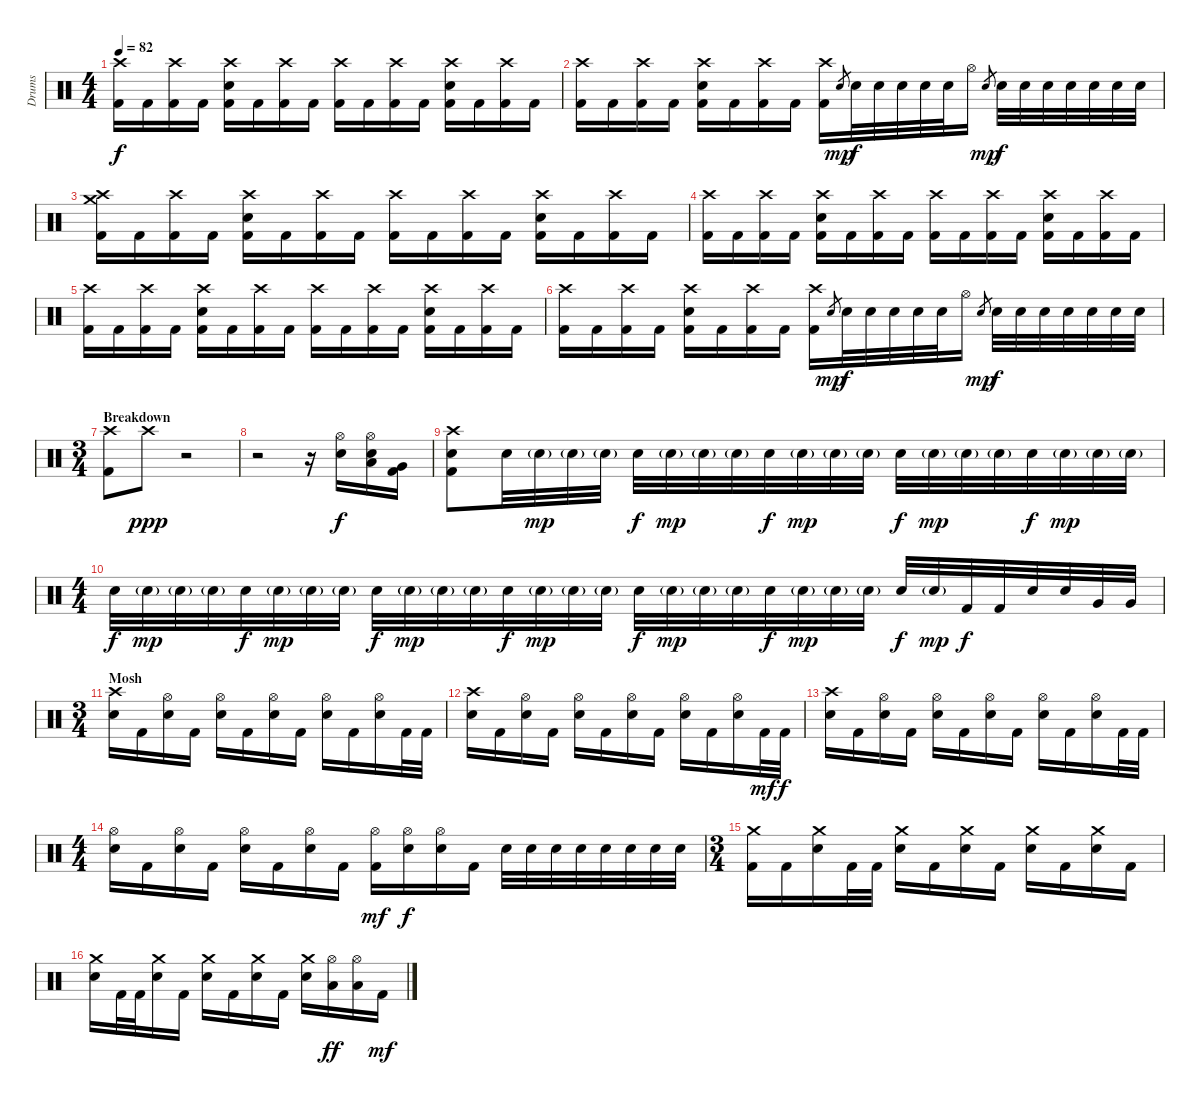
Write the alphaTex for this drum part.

\track ("Drums" "Drums") {instrument percussion}
\staff {score}
\articulation defaults
\ts (4 4)
\tempo 82
\clef neutral
\ks c
("Crash high (hit)" "Kick (hit) 2").16{dy f} "Kick (hit) 2".16 ("Crash high (hit)" "Kick (hit) 2").16 "Kick (hit) 2".16 ("Crash high (hit)" "Electric Snare (hit)" "Kick (hit) 2").16 "Kick (hit) 2".16 ("Crash high (hit)" "Kick (hit) 2").16 "Kick (hit) 2".16 ("Crash high (hit)" "Kick (hit) 2").16 "Kick (hit) 2".16 ("Crash high (hit)" "Kick (hit) 2").16 "Kick (hit) 2".16 ("Crash high (hit)" "Electric Snare (hit)" "Kick (hit) 2").16 "Kick (hit) 2".16 ("Crash high (hit)" "Kick (hit) 2").16 "Kick (hit) 2".16 |
("Crash high (hit)" "Kick (hit) 2").16 "Kick (hit) 2".16 ("Crash high (hit)" "Kick (hit) 2").16 "Kick (hit) 2".16 ("Crash high (hit)" "Electric Snare (hit)" "Kick (hit) 2").16 "Kick (hit) 2".16 ("Crash high (hit)" "Kick (hit) 2").16 "Kick (hit) 2".16 ("Crash high (hit)" "Kick (hit) 2").16 "Electric Snare (hit)".8{gr dy mp} "Electric Snare (hit)".32{dy f} "Electric Snare (hit)".32 "Electric Snare (hit)".32 "Electric Snare (hit)".32 "Electric Snare (hit)".32 "Hi-Hat (open)".16 "Electric Snare (hit)".8{gr dy mp} "Electric Snare (hit)".32{dy f} "Electric Snare (hit)".32 "Electric Snare (hit)".32 "Electric Snare (hit)".32 "Electric Snare (hit)".32 "Electric Snare (hit)".32 "Electric Snare (hit)".32 |
\section ("" "")
("Crash high (hit)" "Crash medium (hit)" "Kick (hit) 2").16 "Kick (hit) 2".16 ("Crash high (hit)" "Kick (hit) 2").16 "Kick (hit) 2".16 ("Crash high (hit)" "Electric Snare (hit)" "Kick (hit) 2").16 "Kick (hit) 2".16 ("Crash high (hit)" "Kick (hit) 2").16 "Kick (hit) 2".16 ("Crash high (hit)" "Kick (hit) 2").16 "Kick (hit) 2".16 ("Crash high (hit)" "Kick (hit) 2").16 "Kick (hit) 2".16 ("Crash high (hit)" "Electric Snare (hit)" "Kick (hit) 2").16 "Kick (hit) 2".16 ("Crash high (hit)" "Kick (hit) 2").16 "Kick (hit) 2".16 |
("Crash high (hit)" "Kick (hit) 2").16 "Kick (hit) 2".16 ("Crash high (hit)" "Kick (hit) 2").16 "Kick (hit) 2".16 ("Crash high (hit)" "Electric Snare (hit)" "Kick (hit) 2").16 "Kick (hit) 2".16 ("Crash high (hit)" "Kick (hit) 2").16 "Kick (hit) 2".16 ("Crash high (hit)" "Kick (hit) 2").16 "Kick (hit) 2".16 ("Crash high (hit)" "Kick (hit) 2").16 "Kick (hit) 2".16 ("Crash high (hit)" "Electric Snare (hit)" "Kick (hit) 2").16 "Kick (hit) 2".16 ("Crash high (hit)" "Kick (hit) 2").16 "Kick (hit) 2".16 |
("Crash high (hit)" "Kick (hit) 2").16 "Kick (hit) 2".16 ("Crash high (hit)" "Kick (hit) 2").16 "Kick (hit) 2".16 ("Crash high (hit)" "Electric Snare (hit)" "Kick (hit) 2").16 "Kick (hit) 2".16 ("Crash high (hit)" "Kick (hit) 2").16 "Kick (hit) 2".16 ("Crash high (hit)" "Kick (hit) 2").16 "Kick (hit) 2".16 ("Crash high (hit)" "Kick (hit) 2").16 "Kick (hit) 2".16 ("Crash high (hit)" "Electric Snare (hit)" "Kick (hit) 2").16 "Kick (hit) 2".16 ("Crash high (hit)" "Kick (hit) 2").16 "Kick (hit) 2".16 |
("Crash high (hit)" "Kick (hit) 2").16 "Kick (hit) 2".16 ("Crash high (hit)" "Kick (hit) 2").16 "Kick (hit) 2".16 ("Crash high (hit)" "Electric Snare (hit)" "Kick (hit) 2").16 "Kick (hit) 2".16 ("Crash high (hit)" "Kick (hit) 2").16 "Kick (hit) 2".16 ("Crash high (hit)" "Kick (hit) 2").16 "Electric Snare (hit)".8{gr dy mp} "Electric Snare (hit)".32{dy f} "Electric Snare (hit)".32 "Electric Snare (hit)".32 "Electric Snare (hit)".32 "Electric Snare (hit)".32 "Hi-Hat (open)".16 "Electric Snare (hit)".8{gr dy mp} "Electric Snare (hit)".32{dy f} "Electric Snare (hit)".32 "Electric Snare (hit)".32 "Electric Snare (hit)".32 "Electric Snare (hit)".32 "Electric Snare (hit)".32 "Electric Snare (hit)".32 |
\ts (3 4)
\section ("" "Breakdown")
("Crash high (hit)" "Kick (hit) 2").8 "Crash high (hit)".8{dy ppp} r.2 |
r.2 r.16 ("Hi-Hat (open)" "Electric Snare (hit)").16{dy f} ("Hi-Hat (open)" "Low Tom (hit)" "Electric Snare (hit)").16 ("Very Low Tom (hit)" "Kick (hit) 2").16 |
("Crash high (hit)" "Electric Snare (hit)" "Kick (hit) 2").8 "Electric Snare (hit)".32 "Electric Snare (hit)"{g}.32{dy mp} "Electric Snare (hit)"{g}.32 "Electric Snare (hit)"{g}.32 "Electric Snare (hit)".32{dy f} "Electric Snare (hit)"{g}.32{dy mp} "Electric Snare (hit)"{g}.32 "Electric Snare (hit)"{g}.32 "Electric Snare (hit)".32{dy f} "Electric Snare (hit)"{g}.32{dy mp} "Electric Snare (hit)"{g}.32 "Electric Snare (hit)"{g}.32 "Electric Snare (hit)".32{dy f} "Electric Snare (hit)"{g}.32{dy mp} "Electric Snare (hit)"{g}.32 "Electric Snare (hit)"{g}.32 "Electric Snare (hit)".32{dy f} "Electric Snare (hit)"{g}.32{dy mp} "Electric Snare (hit)"{g}.32 "Electric Snare (hit)"{g}.32 |
\ts (4 4)
"Electric Snare (hit)".32{dy f} "Electric Snare (hit)"{g}.32{dy mp} "Electric Snare (hit)"{g}.32 "Electric Snare (hit)"{g}.32 "Electric Snare (hit)".32{dy f} "Electric Snare (hit)"{g}.32{dy mp} "Electric Snare (hit)"{g}.32 "Electric Snare (hit)"{g}.32 "Electric Snare (hit)".32{dy f} "Electric Snare (hit)"{g}.32{dy mp} "Electric Snare (hit)"{g}.32 "Electric Snare (hit)"{g}.32 "Electric Snare (hit)".32{dy f} "Electric Snare (hit)"{g}.32{dy mp} "Electric Snare (hit)"{g}.32 "Electric Snare (hit)"{g}.32 "Electric Snare (hit)".32{dy f} "Electric Snare (hit)"{g}.32{dy mp} "Electric Snare (hit)"{g}.32 "Electric Snare (hit)"{g}.32 "Electric Snare (hit)".32{dy f} "Electric Snare (hit)"{g}.32{dy mp} "Electric Snare (hit)"{g}.32 "Electric Snare (hit)"{g}.32 "Electric Snare (hit)".32{dy f} "Electric Snare (hit)"{g}.32{dy mp} "Kick (hit) 2".32{dy f} "Kick (hit) 2".32 "Electric Snare (hit)".32 "Electric Snare (hit)".32 "Very Low Tom (hit)".32 "Very Low Tom (hit)".32 |
\ts (3 4)
\section ("" "Mosh")
("Crash high (hit)" "Electric Snare (hit)").16 "Kick (hit) 2".16 ("Hi-Hat (open)" "Electric Snare (hit)").16 "Kick (hit) 2".16 ("Hi-Hat (open)" "Electric Snare (hit)").16 "Kick (hit) 2".16 ("Hi-Hat (open)" "Electric Snare (hit)").16 "Kick (hit) 2".16 ("Hi-Hat (open)" "Electric Snare (hit)").16 "Kick (hit) 2".16 ("Hi-Hat (open)" "Electric Snare (hit)").16 "Kick (hit) 2".32 "Kick (hit) 2".32 |
("Crash high (hit)" "Electric Snare (hit)").16 "Kick (hit) 2".16 ("Hi-Hat (open)" "Electric Snare (hit)").16 "Kick (hit) 2".16 ("Hi-Hat (open)" "Electric Snare (hit)").16 "Kick (hit) 2".16 ("Hi-Hat (open)" "Electric Snare (hit)").16 "Kick (hit) 2".16 ("Hi-Hat (open)" "Electric Snare (hit)").16 "Kick (hit) 2".16 ("Hi-Hat (open)" "Electric Snare (hit)").16 "Kick (hit) 2".32{dy mf} "Kick (hit) 2".32{dy f} |
("Crash high (hit)" "Electric Snare (hit)").16 "Kick (hit) 2".16 ("Hi-Hat (open)" "Electric Snare (hit)").16 "Kick (hit) 2".16 ("Hi-Hat (open)" "Electric Snare (hit)").16 "Kick (hit) 2".16 ("Hi-Hat (open)" "Electric Snare (hit)").16 "Kick (hit) 2".16 ("Hi-Hat (open)" "Electric Snare (hit)").16 "Kick (hit) 2".16 ("Hi-Hat (open)" "Electric Snare (hit)").16 "Kick (hit) 2".32 "Kick (hit) 2".32 |
\ts (4 4)
("Hi-Hat (open)" "Electric Snare (hit)").16 "Kick (hit) 2".16 ("Hi-Hat (open)" "Electric Snare (hit)").16 "Kick (hit) 2".16 ("Hi-Hat (open)" "Electric Snare (hit)").16 "Kick (hit) 2".16 ("Hi-Hat (open)" "Electric Snare (hit)").16 "Kick (hit) 2".16 ("Hi-Hat (open)" "Kick (hit) 2").16{dy mf} ("Hi-Hat (open)" "Electric Snare (hit)").16{dy f} ("Hi-Hat (open)" "Electric Snare (hit)").16 "Kick (hit) 2".16 "Electric Snare (hit)".32 "Electric Snare (hit)".32 "Electric Snare (hit)".32 "Electric Snare (hit)".32 "Electric Snare (hit)".32 "Electric Snare (hit)".32 "Electric Snare (hit)".32 "Electric Snare (hit)".32 |
\ts (3 4)
("Crash medium (hit)" "Kick (hit) 2").16 "Kick (hit) 2".16 ("Crash medium (hit)" "Electric Snare (hit)").16 "Kick (hit) 2".32 "Kick (hit) 2".32 ("Crash medium (hit)" "Electric Snare (hit)").16 "Kick (hit) 2".16 ("Crash medium (hit)" "Electric Snare (hit)").16 "Kick (hit) 2".16 ("Crash medium (hit)" "Electric Snare (hit)").16 "Kick (hit) 2".16 ("Crash medium (hit)" "Electric Snare (hit)").16 "Kick (hit) 2".16 |
("Crash medium (hit)" "Electric Snare (hit)").16 "Kick (hit) 2".32 "Kick (hit) 2".32 ("Crash medium (hit)" "Electric Snare (hit)").16 "Kick (hit) 2".16 ("Crash medium (hit)" "Electric Snare (hit)").16 "Kick (hit) 2".16 ("Crash medium (hit)" "Electric Snare (hit)").16 "Kick (hit) 2".16 ("Crash medium (hit)" "Electric Snare (hit)").16 ("Hi-Hat (open)" "Low Tom (hit)").16{dy ff} ("Hi-Hat (open)" "Low Tom (hit)").16 "Kick (hit) 2".16{dy mf}
